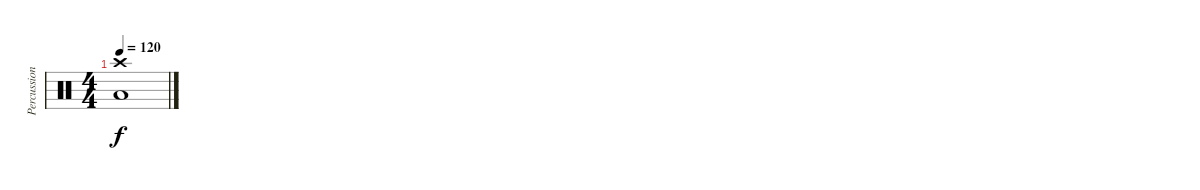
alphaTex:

\track ("Percussions" "Percussion") {instrument percussion}
\staff {score}
\articulation defaults
\ts (4 4)
\tempo 120
\clef neutral
\ks c
("Crash high (hit)" "Low Tom (hit)").1{dy f}
